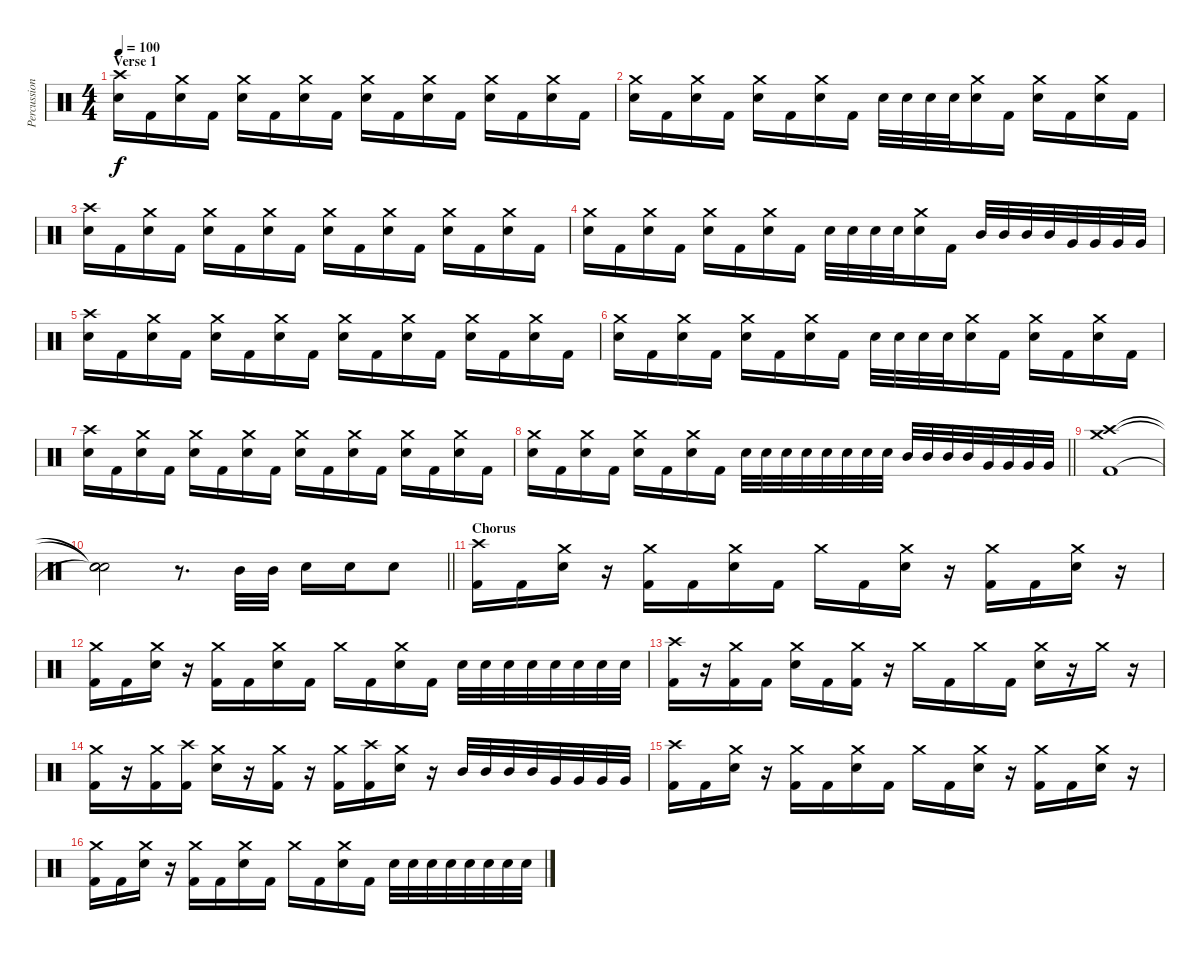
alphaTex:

\track ("Percussion" "Percussion") {instrument percussion}
\staff {score}
\articulation defaults
\ts (4 4)
\section ("" "Verse 1")
\tempo 100
\clef neutral
\ks c
("Crash high (hit)" "Electric Snare (hit)").16{dy f} "Kick (hit) 2".16 ("Crash medium (hit)" "Electric Snare (hit)").16 "Kick (hit) 2".16 ("Crash medium (hit)" "Electric Snare (hit)").16 "Kick (hit) 2".16 ("Crash medium (hit)" "Electric Snare (hit)").16 "Kick (hit) 2".16 ("Crash medium (hit)" "Electric Snare (hit)").16 "Kick (hit) 2".16 ("Crash medium (hit)" "Electric Snare (hit)").16 "Kick (hit) 2".16 ("Crash medium (hit)" "Electric Snare (hit)").16 "Kick (hit) 2".16 ("Crash medium (hit)" "Electric Snare (hit)").16 "Kick (hit) 2".16 |
("Crash medium (hit)" "Electric Snare (hit)").16 "Kick (hit) 2".16 ("Crash medium (hit)" "Electric Snare (hit)").16 "Kick (hit) 2".16 ("Crash medium (hit)" "Electric Snare (hit)").16 "Kick (hit) 2".16 ("Crash medium (hit)" "Electric Snare (hit)").16 "Kick (hit) 2".16 "Electric Snare (hit)".32 "Electric Snare (hit)".32 "Electric Snare (hit)".32 "Electric Snare (hit)".32 ("Crash medium (hit)" "Electric Snare (hit)").16 "Kick (hit) 2".16 ("Crash medium (hit)" "Electric Snare (hit)").16 "Kick (hit) 2".16 ("Crash medium (hit)" "Electric Snare (hit)").16 "Kick (hit) 2".16 |
("Crash high (hit)" "Electric Snare (hit)").16 "Kick (hit) 2".16 ("Crash medium (hit)" "Electric Snare (hit)").16 "Kick (hit) 2".16 ("Crash medium (hit)" "Electric Snare (hit)").16 "Kick (hit) 2".16 ("Crash medium (hit)" "Electric Snare (hit)").16 "Kick (hit) 2".16 ("Crash medium (hit)" "Electric Snare (hit)").16 "Kick (hit) 2".16 ("Crash medium (hit)" "Electric Snare (hit)").16 "Kick (hit) 2".16 ("Crash medium (hit)" "Electric Snare (hit)").16 "Kick (hit) 2".16 ("Crash medium (hit)" "Electric Snare (hit)").16 "Kick (hit) 2".16 |
("Crash medium (hit)" "Electric Snare (hit)").16 "Kick (hit) 2".16 ("Crash medium (hit)" "Electric Snare (hit)").16 "Kick (hit) 2".16 ("Crash medium (hit)" "Electric Snare (hit)").16 "Kick (hit) 2".16 ("Crash medium (hit)" "Electric Snare (hit)").16 "Kick (hit) 2".16 "Electric Snare (hit)".32 "Electric Snare (hit)".32 "Electric Snare (hit)".32 "Electric Snare (hit)".32 ("Crash medium (hit)" "Electric Snare (hit)").16 "Kick (hit) 2".16 "Mid Tom (hit)".32 "Mid Tom (hit)".32 "Mid Tom (hit)".32 "Mid Tom (hit)".32 "Very Low Tom (hit)".32 "Very Low Tom (hit)".32 "Very Low Tom (hit)".32 "Very Low Tom (hit)".32 |
("Crash high (hit)" "Electric Snare (hit)").16 "Kick (hit) 2".16 ("Crash medium (hit)" "Electric Snare (hit)").16 "Kick (hit) 2".16 ("Crash medium (hit)" "Electric Snare (hit)").16 "Kick (hit) 2".16 ("Crash medium (hit)" "Electric Snare (hit)").16 "Kick (hit) 2".16 ("Crash medium (hit)" "Electric Snare (hit)").16 "Kick (hit) 2".16 ("Crash medium (hit)" "Electric Snare (hit)").16 "Kick (hit) 2".16 ("Crash medium (hit)" "Electric Snare (hit)").16 "Kick (hit) 2".16 ("Crash medium (hit)" "Electric Snare (hit)").16 "Kick (hit) 2".16 |
("Crash medium (hit)" "Electric Snare (hit)").16 "Kick (hit) 2".16 ("Crash medium (hit)" "Electric Snare (hit)").16 "Kick (hit) 2".16 ("Crash medium (hit)" "Electric Snare (hit)").16 "Kick (hit) 2".16 ("Crash medium (hit)" "Electric Snare (hit)").16 "Kick (hit) 2".16 "Electric Snare (hit)".32 "Electric Snare (hit)".32 "Electric Snare (hit)".32 "Electric Snare (hit)".32 ("Crash medium (hit)" "Electric Snare (hit)").16 "Kick (hit) 2".16 ("Crash medium (hit)" "Electric Snare (hit)").16 "Kick (hit) 2".16 ("Crash medium (hit)" "Electric Snare (hit)").16 "Kick (hit) 2".16 |
("Crash high (hit)" "Electric Snare (hit)").16 "Kick (hit) 2".16 ("Crash medium (hit)" "Electric Snare (hit)").16 "Kick (hit) 2".16 ("Crash medium (hit)" "Electric Snare (hit)").16 "Kick (hit) 2".16 ("Crash medium (hit)" "Electric Snare (hit)").16 "Kick (hit) 2".16 ("Crash medium (hit)" "Electric Snare (hit)").16 "Kick (hit) 2".16 ("Crash medium (hit)" "Electric Snare (hit)").16 "Kick (hit) 2".16 ("Crash medium (hit)" "Electric Snare (hit)").16 "Kick (hit) 2".16 ("Crash medium (hit)" "Electric Snare (hit)").16 "Kick (hit) 2".16 |
\barLineRight lightlight
("Crash medium (hit)" "Electric Snare (hit)").16 "Kick (hit) 2".16 ("Crash medium (hit)" "Electric Snare (hit)").16 "Kick (hit) 2".16 ("Crash medium (hit)" "Electric Snare (hit)").16 "Kick (hit) 2".16 ("Crash medium (hit)" "Electric Snare (hit)").16 "Kick (hit) 2".16 "Electric Snare (hit)".32 "Electric Snare (hit)".32 "Electric Snare (hit)".32 "Electric Snare (hit)".32 "Electric Snare (hit)".32 "Electric Snare (hit)".32 "Electric Snare (hit)".32 "Electric Snare (hit)".32 "Mid Tom (hit)".32 "Mid Tom (hit)".32 "Mid Tom (hit)".32 "Mid Tom (hit)".32 "Very Low Tom (hit)".32 "Very Low Tom (hit)".32 "Very Low Tom (hit)".32 "Very Low Tom (hit)".32 |
("Crash high (hit)" "Crash medium (hit)" "Kick (hit) 2").1 |
\barLineRight lightlight
("Snare (hit)"{t} "Snare (hit)"{t} "Snare (hit)"{t}).2 r.8{d} "Mid Tom (hit)".32 "Mid Tom (hit)".32 "Electric Snare (hit)".16 "Electric Snare (hit)".16 "Electric Snare (hit)".8 |
\section ("" "Chorus")
("Crash high (hit)" "Kick (hit) 2").16 "Kick (hit) 2".16 ("Crash medium (hit)" "Electric Snare (hit)").16 r.16 ("Crash medium (hit)" "Kick (hit) 2").16 "Kick (hit) 2".16 ("Crash medium (hit)" "Electric Snare (hit)").16 "Kick (hit) 2".16 "Crash medium (hit)".16 "Kick (hit) 2".16 ("Crash medium (hit)" "Electric Snare (hit)").16 r.16 ("Crash medium (hit)" "Kick (hit) 2").16 "Kick (hit) 2".16 ("Crash medium (hit)" "Electric Snare (hit)").16 r.16 |
("Crash medium (hit)" "Kick (hit) 2").16 "Kick (hit) 2".16 ("Crash medium (hit)" "Electric Snare (hit)").16 r.16 ("Crash medium (hit)" "Kick (hit) 2").16 "Kick (hit) 2".16 ("Crash medium (hit)" "Electric Snare (hit)").16 "Kick (hit) 2".16 "Crash medium (hit)".16 "Kick (hit) 2".16 ("Crash medium (hit)" "Electric Snare (hit)").16 "Kick (hit) 2".16 "Electric Snare (hit)".32 "Electric Snare (hit)".32 "Electric Snare (hit)".32 "Electric Snare (hit)".32 "Electric Snare (hit)".32 "Electric Snare (hit)".32 "Electric Snare (hit)".32 "Electric Snare (hit)".32 |
("Crash high (hit)" "Kick (hit) 2").16 r.16 ("Crash medium (hit)" "Kick (hit) 2").16 "Kick (hit) 2".16 ("Crash medium (hit)" "Electric Snare (hit)").16 "Kick (hit) 2".16 ("Crash medium (hit)" "Kick (hit) 2").16 r.16 "Crash medium (hit)".16 "Kick (hit) 2".16 "Crash medium (hit)".16 "Kick (hit) 2".16 ("Crash medium (hit)" "Electric Snare (hit)").16 r.16 "Crash medium (hit)".16 r.16 |
("Crash medium (hit)" "Kick (hit) 2").16 r.16 ("Crash medium (hit)" "Kick (hit) 2").16 ("Crash high (hit)" "Kick (hit) 2").16 ("Crash medium (hit)" "Electric Snare (hit)").16 r.16 ("Crash medium (hit)" "Kick (hit) 2").16 r.16 ("Crash medium (hit)" "Kick (hit) 2").16 ("Crash high (hit)" "Kick (hit) 2").16 ("Crash medium (hit)" "Electric Snare (hit)").16 r.16 "Mid Tom (hit)".32 "Mid Tom (hit)".32 "Mid Tom (hit)".32 "Mid Tom (hit)".32 "Very Low Tom (hit)".32 "Very Low Tom (hit)".32 "Very Low Tom (hit)".32 "Very Low Tom (hit)".32 |
("Crash high (hit)" "Kick (hit) 2").16 "Kick (hit) 2".16 ("Crash medium (hit)" "Electric Snare (hit)").16 r.16 ("Crash medium (hit)" "Kick (hit) 2").16 "Kick (hit) 2".16 ("Crash medium (hit)" "Electric Snare (hit)").16 "Kick (hit) 2".16 "Crash medium (hit)".16 "Kick (hit) 2".16 ("Crash medium (hit)" "Electric Snare (hit)").16 r.16 ("Crash medium (hit)" "Kick (hit) 2").16 "Kick (hit) 2".16 ("Crash medium (hit)" "Electric Snare (hit)").16 r.16 |
("Crash medium (hit)" "Kick (hit) 2").16 "Kick (hit) 2".16 ("Crash medium (hit)" "Electric Snare (hit)").16 r.16 ("Crash medium (hit)" "Kick (hit) 2").16 "Kick (hit) 2".16 ("Crash medium (hit)" "Electric Snare (hit)").16 "Kick (hit) 2".16 "Crash medium (hit)".16 "Kick (hit) 2".16 ("Crash medium (hit)" "Electric Snare (hit)").16 "Kick (hit) 2".16 "Electric Snare (hit)".32 "Electric Snare (hit)".32 "Electric Snare (hit)".32 "Electric Snare (hit)".32 "Electric Snare (hit)".32 "Electric Snare (hit)".32 "Electric Snare (hit)".32 "Electric Snare (hit)".32
